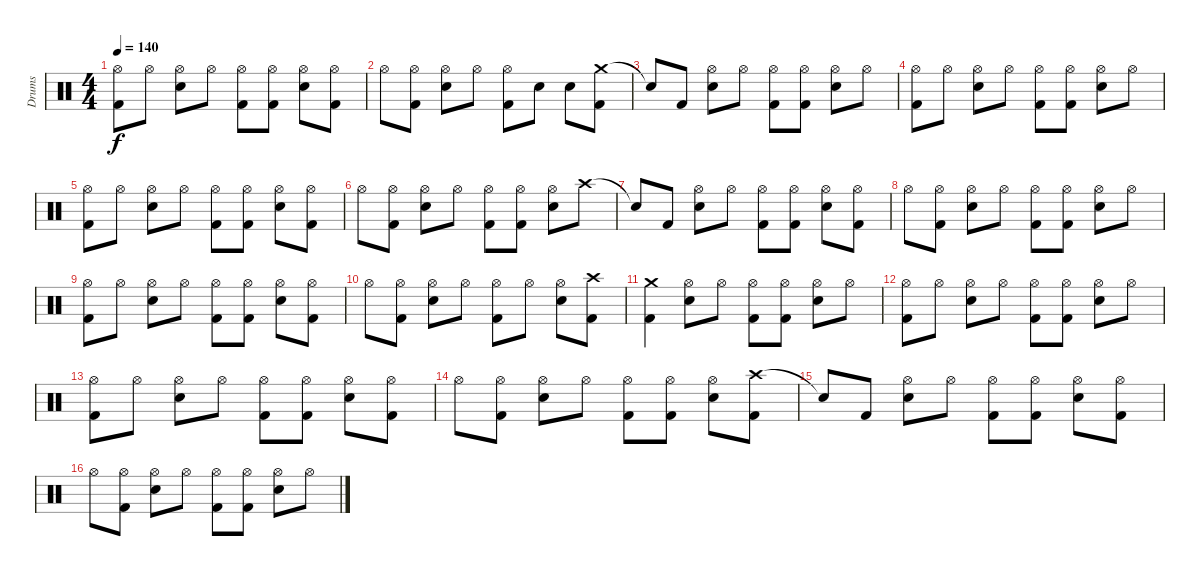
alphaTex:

\track ("Drums" "Drums") {instrument percussion}
\staff {score}
\articulation defaults
\ts (4 4)
\tempo 140
\clef neutral
\ks c
("Hi-Hat (open)" "Kick (hit) 2").8{dy f} "Hi-Hat (open)".8 ("Hi-Hat (open)" "Snare (hit) 2").8 "Hi-Hat (open)".8 ("Hi-Hat (open)" "Kick (hit) 2").8 ("Hi-Hat (open)" "Kick (hit) 2").8 ("Hi-Hat (open)" "Snare (hit) 2").8 ("Hi-Hat (open)" "Kick (hit) 2").8 |
"Hi-Hat (open)".8 ("Hi-Hat (open)" "Kick (hit) 2").8 ("Hi-Hat (open)" "Snare (hit) 2").8 "Hi-Hat (open)".8 ("Hi-Hat (open)" "Kick (hit) 2").8 "Snare (hit) 2".8 "Snare (hit) 2".8 ("Crash medium (hit)" "Kick (hit) 2").8 |
"Snare (hit)"{t}.8 "Kick (hit) 2".8 ("Hi-Hat (open)" "Snare (hit) 2").8 "Hi-Hat (open)".8 ("Hi-Hat (open)" "Kick (hit) 2").8 ("Hi-Hat (open)" "Kick (hit) 2").8 ("Hi-Hat (open)" "Snare (hit) 2").8 "Hi-Hat (open)".8 |
("Kick (hit) 2" "Hi-Hat (open)").8 "Hi-Hat (open)".8 ("Hi-Hat (open)" "Snare (hit) 2").8 "Hi-Hat (open)".8 ("Hi-Hat (open)" "Kick (hit) 2").8 ("Kick (hit) 2" "Hi-Hat (open)").8 ("Snare (hit) 2" "Hi-Hat (open)").8 "Hi-Hat (open)".8 |
("Hi-Hat (open)" "Kick (hit) 2").8 "Hi-Hat (open)".8 ("Hi-Hat (open)" "Snare (hit) 2").8 "Hi-Hat (open)".8 ("Hi-Hat (open)" "Kick (hit) 2").8 ("Hi-Hat (open)" "Kick (hit) 2").8 ("Hi-Hat (open)" "Snare (hit) 2").8 ("Hi-Hat (open)" "Kick (hit) 2").8 |
"Hi-Hat (open)".8 ("Hi-Hat (open)" "Kick (hit) 2").8 ("Hi-Hat (open)" "Snare (hit) 2").8 "Hi-Hat (open)".8 ("Hi-Hat (open)" "Kick (hit) 2").8 ("Kick (hit) 2" "Hi-Hat (open)").8 ("Hi-Hat (open)" "Snare (hit) 2").8 "Crash high (hit)".8 |
"Snare (hit)"{t}.8 "Kick (hit) 2".8 ("Hi-Hat (open)" "Snare (hit) 2").8 "Hi-Hat (open)".8 ("Hi-Hat (open)" "Kick (hit) 2").8 ("Hi-Hat (open)" "Kick (hit) 2").8 ("Hi-Hat (open)" "Snare (hit) 2").8 ("Hi-Hat (open)" "Kick (hit) 2").8 |
"Hi-Hat (open)".8 ("Hi-Hat (open)" "Kick (hit) 2").8 ("Hi-Hat (open)" "Snare (hit) 2").8 "Hi-Hat (open)".8 ("Hi-Hat (open)" "Kick (hit) 2").8 ("Hi-Hat (open)" "Kick (hit) 2").8 ("Hi-Hat (open)" "Snare (hit) 2").8 "Hi-Hat (open)".8 |
("Hi-Hat (open)" "Kick (hit) 2").8 "Hi-Hat (open)".8 ("Snare (hit) 2" "Hi-Hat (open)").8 "Hi-Hat (open)".8 ("Hi-Hat (open)" "Kick (hit) 2").8 ("Hi-Hat (open)" "Kick (hit) 2").8 ("Snare (hit) 2" "Hi-Hat (open)").8 ("Hi-Hat (open)" "Kick (hit) 2").8 |
"Hi-Hat (open)".8 ("Kick (hit) 2" "Hi-Hat (open)").8 ("Snare (hit) 2" "Hi-Hat (open)").8 "Hi-Hat (open)".8 ("Kick (hit) 2" "Hi-Hat (open)").8 "Hi-Hat (open)".8 ("Snare (hit) 2" "Hi-Hat (open)").8 ("Crash high (hit)" "Kick (hit) 2").8 |
("Crash medium (hit)" "Kick (hit) 2").4 ("Snare (hit) 2" "Hi-Hat (open)").8 "Hi-Hat (open)".8 ("Kick (hit) 2" "Hi-Hat (open)").8 ("Kick (hit) 2" "Hi-Hat (open)").8 ("Snare (hit) 2" "Hi-Hat (open)").8 "Hi-Hat (open)".8 |
("Hi-Hat (open)" "Kick (hit) 2").8 "Hi-Hat (open)".8 ("Hi-Hat (open)" "Snare (hit) 2").8 "Hi-Hat (open)".8 ("Hi-Hat (open)" "Kick (hit) 2").8 ("Hi-Hat (open)" "Kick (hit) 2").8 ("Hi-Hat (open)" "Snare (hit) 2").8 "Hi-Hat (open)".8 |
("Hi-Hat (open)" "Kick (hit) 2").8 "Hi-Hat (open)".8 ("Snare (hit) 2" "Hi-Hat (open)").8 "Hi-Hat (open)".8 ("Hi-Hat (open)" "Kick (hit) 2").8 ("Hi-Hat (open)" "Kick (hit) 2").8 ("Snare (hit) 2" "Hi-Hat (open)").8 ("Hi-Hat (open)" "Kick (hit) 2").8 |
"Hi-Hat (open)".8 ("Hi-Hat (open)" "Kick (hit) 2").8 ("Snare (hit) 2" "Hi-Hat (open)").8 "Hi-Hat (open)".8 ("Hi-Hat (open)" "Kick (hit) 2").8 ("Hi-Hat (open)" "Kick (hit) 2").8 ("Snare (hit) 2" "Hi-Hat (open)").8 ("Crash high (hit)" "Kick (hit) 2").8 |
"Snare (hit)"{t}.8 "Kick (hit) 2".8 ("Hi-Hat (open)" "Snare (hit) 2").8 "Hi-Hat (open)".8 ("Hi-Hat (open)" "Kick (hit) 2").8 ("Hi-Hat (open)" "Kick (hit) 2").8 ("Hi-Hat (open)" "Snare (hit) 2").8 ("Hi-Hat (open)" "Kick (hit) 2").8 |
"Hi-Hat (open)".8 ("Hi-Hat (open)" "Kick (hit) 2").8 ("Snare (hit) 2" "Hi-Hat (open)").8 "Hi-Hat (open)".8 ("Hi-Hat (open)" "Kick (hit) 2").8 ("Hi-Hat (open)" "Kick (hit) 2").8 ("Snare (hit) 2" "Hi-Hat (open)").8 "Hi-Hat (open)".8
